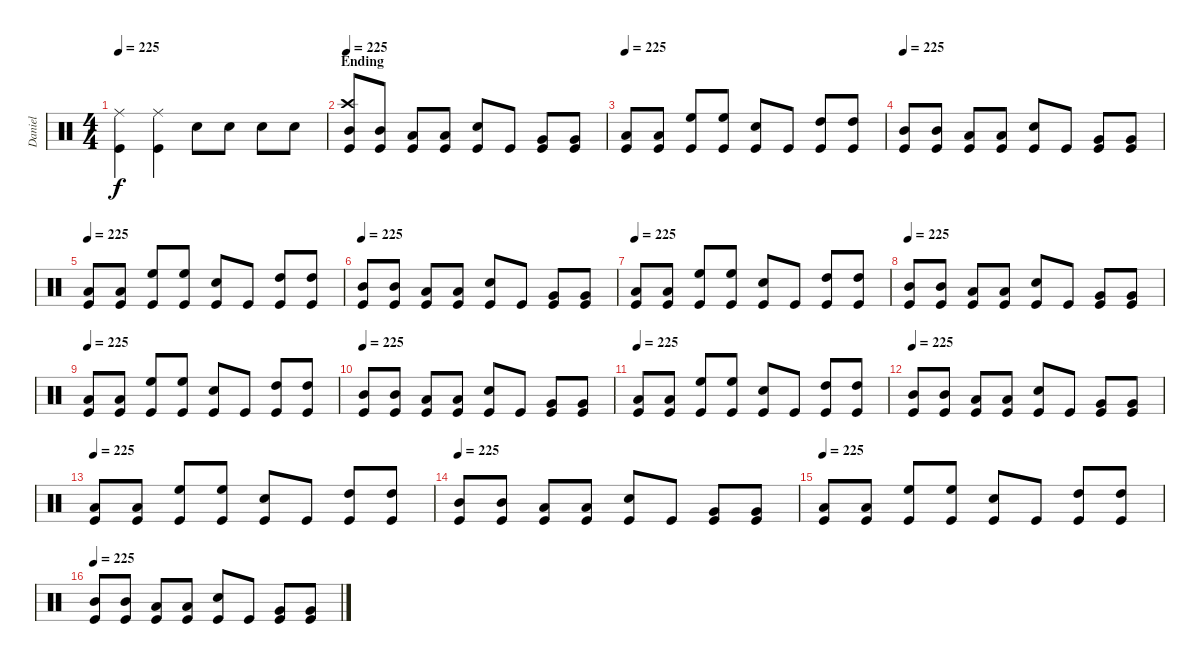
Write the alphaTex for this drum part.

\track ("Daniel" "Daniel") {instrument percussion}
\staff {score}
\articulation defaults
\ts (4 4)
\tempo 225
\clef neutral
\ks c
("Ride (middle)" "Kick (hit)").4{dy f} ("Ride (middle)" "Kick (hit)").4 "Snare (hit) 2".8 "Snare (hit) 2".8 "Snare (hit) 2".8 "Snare (hit) 2".8 |
\section ("" "Ending")
\tempo 225
("Crash high (hit)" "Mid Tom (hit)" "Kick (hit)").8 ("Mid Tom (hit)" "Kick (hit)").8 ("Low Tom (hit)" "Kick (hit)").8 ("Low Tom (hit)" "Kick (hit)").8 ("Snare (hit) 2" "Kick (hit)").8 "Kick (hit)".8 ("Very Low Tom (hit)" "Kick (hit)").8 ("Very Low Tom (hit)" "Kick (hit)").8 |
\tempo 225
("Low Floor Tom (hit)" "Kick (hit)").8 ("Low Floor Tom (hit)" "Kick (hit)").8 ("High Floor Tom (hit)" "Kick (hit)").8 ("High Floor Tom (hit)" "Kick (hit)").8 ("Snare (hit) 2" "Kick (hit)").8 "Kick (hit)".8 ("High Tom (hit)" "Kick (hit)").8 ("High Tom (hit)" "Kick (hit)").8 |
\tempo 225
("Mid Tom (hit)" "Kick (hit)").8 ("Mid Tom (hit)" "Kick (hit)").8 ("Low Tom (hit)" "Kick (hit)").8 ("Low Tom (hit)" "Kick (hit)").8 ("Snare (hit) 2" "Kick (hit)").8 "Kick (hit)".8 ("Very Low Tom (hit)" "Kick (hit)").8 ("Very Low Tom (hit)" "Kick (hit)").8 |
\tempo 225
("Low Floor Tom (hit)" "Kick (hit)").8 ("Low Floor Tom (hit)" "Kick (hit)").8 ("High Floor Tom (hit)" "Kick (hit)").8 ("High Floor Tom (hit)" "Kick (hit)").8 ("Snare (hit) 2" "Kick (hit)").8 "Kick (hit)".8 ("High Tom (hit)" "Kick (hit)").8 ("High Tom (hit)" "Kick (hit)").8 |
\tempo 225
("Mid Tom (hit)" "Kick (hit)").8 ("Mid Tom (hit)" "Kick (hit)").8 ("Low Tom (hit)" "Kick (hit)").8 ("Low Tom (hit)" "Kick (hit)").8 ("Snare (hit) 2" "Kick (hit)").8 "Kick (hit)".8 ("Very Low Tom (hit)" "Kick (hit)").8 ("Very Low Tom (hit)" "Kick (hit)").8 |
\tempo 225
("Low Floor Tom (hit)" "Kick (hit)").8 ("Low Floor Tom (hit)" "Kick (hit)").8 ("High Floor Tom (hit)" "Kick (hit)").8 ("High Floor Tom (hit)" "Kick (hit)").8 ("Snare (hit) 2" "Kick (hit)").8 "Kick (hit)".8 ("High Tom (hit)" "Kick (hit)").8 ("High Tom (hit)" "Kick (hit)").8 |
\tempo 225
("Mid Tom (hit)" "Kick (hit)").8 ("Mid Tom (hit)" "Kick (hit)").8 ("Low Tom (hit)" "Kick (hit)").8 ("Low Tom (hit)" "Kick (hit)").8 ("Snare (hit) 2" "Kick (hit)").8 "Kick (hit)".8 ("Very Low Tom (hit)" "Kick (hit)").8 ("Very Low Tom (hit)" "Kick (hit)").8 |
\tempo 225
("Low Floor Tom (hit)" "Kick (hit)").8 ("Low Floor Tom (hit)" "Kick (hit)").8 ("High Floor Tom (hit)" "Kick (hit)").8 ("High Floor Tom (hit)" "Kick (hit)").8 ("Snare (hit) 2" "Kick (hit)").8 "Kick (hit)".8 ("High Tom (hit)" "Kick (hit)").8 ("High Tom (hit)" "Kick (hit)").8 |
\tempo 225
("Mid Tom (hit)" "Kick (hit)").8 ("Mid Tom (hit)" "Kick (hit)").8 ("Low Tom (hit)" "Kick (hit)").8 ("Low Tom (hit)" "Kick (hit)").8 ("Snare (hit) 2" "Kick (hit)").8 "Kick (hit)".8 ("Very Low Tom (hit)" "Kick (hit)").8 ("Very Low Tom (hit)" "Kick (hit)").8 |
\tempo 225
("Low Floor Tom (hit)" "Kick (hit)").8 ("Low Floor Tom (hit)" "Kick (hit)").8 ("High Floor Tom (hit)" "Kick (hit)").8 ("High Floor Tom (hit)" "Kick (hit)").8 ("Snare (hit) 2" "Kick (hit)").8 "Kick (hit)".8 ("High Tom (hit)" "Kick (hit)").8 ("High Tom (hit)" "Kick (hit)").8 |
\tempo 225
("Mid Tom (hit)" "Kick (hit)").8 ("Mid Tom (hit)" "Kick (hit)").8 ("Low Tom (hit)" "Kick (hit)").8 ("Low Tom (hit)" "Kick (hit)").8 ("Snare (hit) 2" "Kick (hit)").8 "Kick (hit)".8 ("Very Low Tom (hit)" "Kick (hit)").8 ("Very Low Tom (hit)" "Kick (hit)").8 |
\tempo 225
("Low Floor Tom (hit)" "Kick (hit)").8 ("Low Floor Tom (hit)" "Kick (hit)").8 ("High Floor Tom (hit)" "Kick (hit)").8 ("High Floor Tom (hit)" "Kick (hit)").8 ("Snare (hit) 2" "Kick (hit)").8 "Kick (hit)".8 ("High Tom (hit)" "Kick (hit)").8 ("High Tom (hit)" "Kick (hit)").8 |
\tempo 225
("Mid Tom (hit)" "Kick (hit)").8 ("Mid Tom (hit)" "Kick (hit)").8 ("Low Tom (hit)" "Kick (hit)").8 ("Low Tom (hit)" "Kick (hit)").8 ("Snare (hit) 2" "Kick (hit)").8 "Kick (hit)".8 ("Very Low Tom (hit)" "Kick (hit)").8 ("Very Low Tom (hit)" "Kick (hit)").8 |
\tempo 225
("Low Floor Tom (hit)" "Kick (hit)").8 ("Low Floor Tom (hit)" "Kick (hit)").8 ("High Floor Tom (hit)" "Kick (hit)").8 ("High Floor Tom (hit)" "Kick (hit)").8 ("Snare (hit) 2" "Kick (hit)").8 "Kick (hit)".8 ("High Tom (hit)" "Kick (hit)").8 ("High Tom (hit)" "Kick (hit)").8 |
\tempo 225
("Mid Tom (hit)" "Kick (hit)").8 ("Mid Tom (hit)" "Kick (hit)").8 ("Low Tom (hit)" "Kick (hit)").8 ("Low Tom (hit)" "Kick (hit)").8 ("Snare (hit) 2" "Kick (hit)").8 "Kick (hit)".8 ("Very Low Tom (hit)" "Kick (hit)").8 ("Very Low Tom (hit)" "Kick (hit)").8
